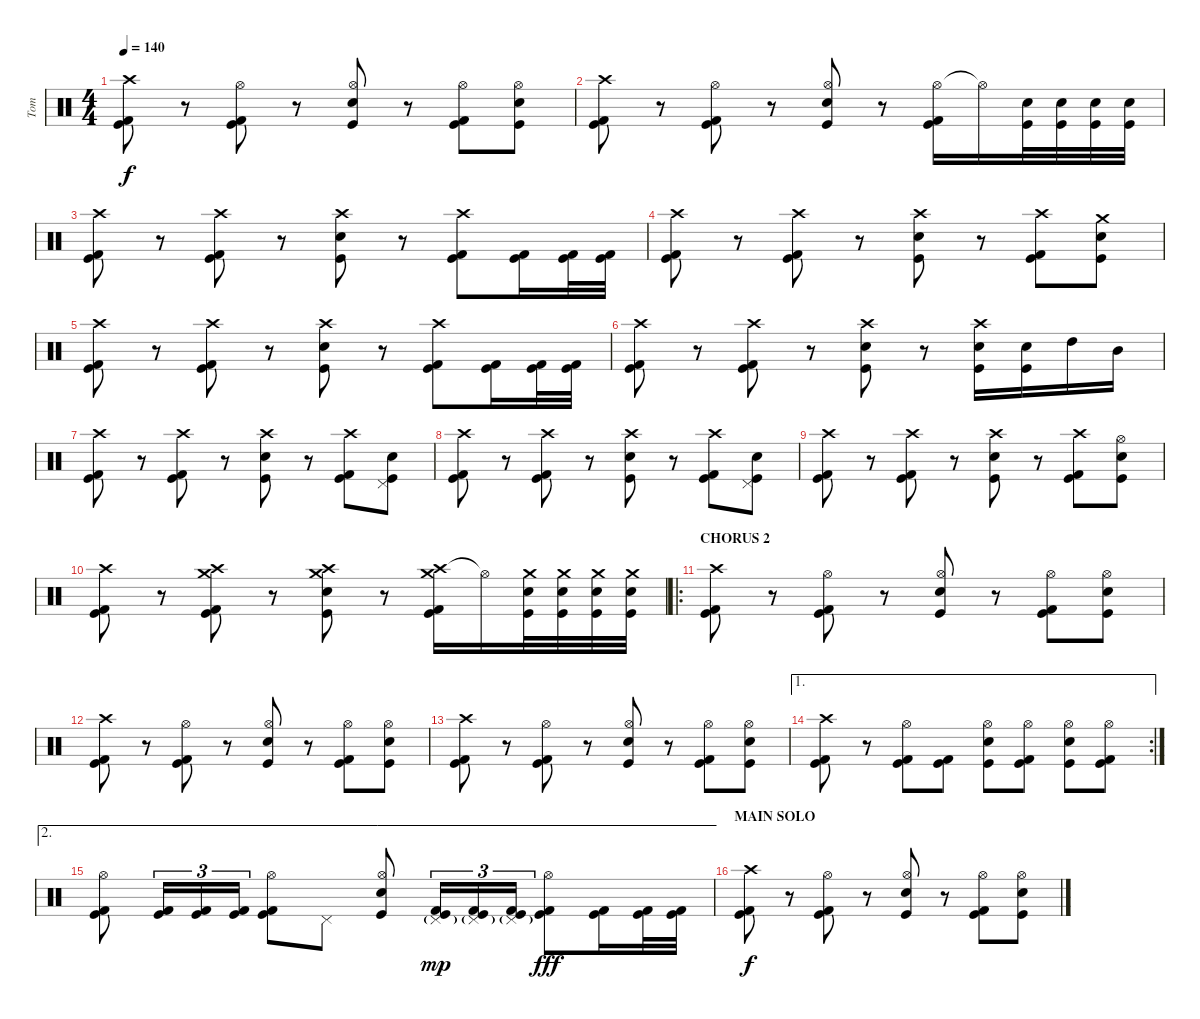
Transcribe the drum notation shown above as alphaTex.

\track ("Tom" "Tom") {instrument percussion}
\staff {score}
\articulation defaults
\ts (4 4)
\tempo 140
\clef neutral
\ks c
("Crash high (hit)" "Kick (hit)" "Kick (hit) 2").8{dy f} r.8 ("Hi-Hat (open)" "Kick (hit)" "Kick (hit) 2").8 r.8 ("Hi-Hat (open)" "Kick (hit)" "Electric Snare (hit)").8 r.8 ("Hi-Hat (open)" "Kick (hit)" "Kick (hit) 2").8 ("Hi-Hat (open)" "Kick (hit)" "Electric Snare (hit)").8 |
("Crash high (hit)" "Kick (hit)" "Kick (hit) 2").8 r.8 ("Hi-Hat (open)" "Kick (hit)" "Kick (hit) 2").8 r.8 ("Hi-Hat (open)" "Kick (hit)" "Electric Snare (hit)").8 r.8 ("Hi-Hat (open)" "Kick (hit)" "Kick (hit) 2").16 "Hi-Hat (open)"{t}.16 ("Kick (hit)" "Electric Snare (hit)").32 ("Kick (hit)" "Electric Snare (hit)").32 ("Kick (hit)" "Electric Snare (hit)").32 ("Kick (hit)" "Electric Snare (hit)").32 |
("Crash high (hit)" "Kick (hit)" "Kick (hit) 2").8 r.8 ("Crash high (hit)" "Kick (hit)" "Kick (hit) 2").8 r.8 ("Crash high (hit)" "Kick (hit)" "Electric Snare (hit)").8 r.8 ("Crash high (hit)" "Kick (hit)" "Kick (hit) 2").8 ("Kick (hit)" "Kick (hit) 2").16 ("Kick (hit)" "Kick (hit) 2").32 ("Kick (hit)" "Kick (hit) 2").32 |
("Crash high (hit)" "Kick (hit)" "Kick (hit) 2").8 r.8 ("Crash high (hit)" "Kick (hit)" "Kick (hit) 2").8 r.8 ("Crash high (hit)" "Kick (hit)" "Electric Snare (hit)").8 r.8 ("Crash high (hit)" "Kick (hit)" "Kick (hit) 2").8 ("Crash medium (hit)" "Kick (hit)" "Electric Snare (hit)").8 |
("Crash high (hit)" "Kick (hit)" "Kick (hit) 2").8 r.8 ("Crash high (hit)" "Kick (hit)" "Kick (hit) 2").8 r.8 ("Crash high (hit)" "Kick (hit)" "Electric Snare (hit)").8 r.8 ("Crash high (hit)" "Kick (hit)" "Kick (hit) 2").8 ("Kick (hit)" "Kick (hit) 2").16 ("Kick (hit)" "Kick (hit) 2").32 ("Kick (hit)" "Kick (hit) 2").32 |
("Crash high (hit)" "Kick (hit)" "Kick (hit) 2").8 r.8 ("Crash high (hit)" "Kick (hit)" "Kick (hit) 2").8 r.8 ("Crash high (hit)" "Kick (hit)" "Electric Snare (hit)").8 r.8 ("Crash high (hit)" "Kick (hit)" "Electric Snare (hit)").16 ("Kick (hit)" "Electric Snare (hit)").16 "High Tom (hit)".16 "Mid Tom (hit)".16 |
("Crash high (hit)" "Kick (hit)" "Kick (hit) 2").8 r.8 ("Crash high (hit)" "Kick (hit)" "Kick (hit) 2").8 r.8 ("Crash high (hit)" "Kick (hit)" "Electric Snare (hit)").8 r.8 ("Crash high (hit)" "Kick (hit)" "Kick (hit) 2").8 ("Pedal Hi-Hat (hit)" "Kick (hit)" "Electric Snare (hit)").8 |
("Crash high (hit)" "Kick (hit)" "Kick (hit) 2").8 r.8 ("Crash high (hit)" "Kick (hit)" "Kick (hit) 2").8 r.8 ("Crash high (hit)" "Kick (hit)" "Electric Snare (hit)").8 r.8 ("Crash high (hit)" "Kick (hit)" "Kick (hit) 2").8 ("Pedal Hi-Hat (hit)" "Kick (hit)" "Electric Snare (hit)").8 |
("Crash high (hit)" "Kick (hit)" "Kick (hit) 2").8 r.8 ("Crash high (hit)" "Kick (hit)" "Kick (hit) 2").8 r.8 ("Crash high (hit)" "Kick (hit)" "Electric Snare (hit)").8 r.8 ("Crash high (hit)" "Kick (hit)" "Kick (hit) 2").8 ("Hi-Hat (open)" "Kick (hit)" "Electric Snare (hit)").8 |
("Crash high (hit)" "Kick (hit)" "Kick (hit) 2").8 r.8 ("Crash high (hit)" "Kick (hit)" "Crash medium (hit)" "Kick (hit) 2").8 r.8 ("Crash high (hit)" "Kick (hit)" "Crash medium (hit)" "Electric Snare (hit)").8 r.8 ("Crash high (hit)" "Kick (hit)" "Crash medium (hit)" "Kick (hit) 2").16 "Hi-Hat (open)"{t}.16 ("Kick (hit)" "Crash medium (hit)" "Electric Snare (hit)").32 ("Kick (hit)" "Crash medium (hit)" "Electric Snare (hit)").32 ("Kick (hit)" "Crash medium (hit)" "Electric Snare (hit)").32 ("Kick (hit)" "Crash medium (hit)" "Electric Snare (hit)").32 |
\ro
\section ("" "CHORUS 2")
("Crash high (hit)" "Kick (hit)" "Kick (hit) 2").8 r.8 ("Hi-Hat (open)" "Kick (hit)" "Kick (hit) 2").8 r.8 ("Hi-Hat (open)" "Kick (hit)" "Electric Snare (hit)").8 r.8 ("Hi-Hat (open)" "Kick (hit)" "Kick (hit) 2").8 ("Hi-Hat (open)" "Kick (hit)" "Electric Snare (hit)").8 |
("Crash high (hit)" "Kick (hit)" "Kick (hit) 2").8 r.8 ("Hi-Hat (open)" "Kick (hit)" "Kick (hit) 2").8 r.8 ("Hi-Hat (open)" "Kick (hit)" "Electric Snare (hit)").8 r.8 ("Hi-Hat (open)" "Kick (hit)" "Kick (hit) 2").8 ("Hi-Hat (open)" "Kick (hit)" "Electric Snare (hit)").8 |
("Crash high (hit)" "Kick (hit)" "Kick (hit) 2").8 r.8 ("Hi-Hat (open)" "Kick (hit)" "Kick (hit) 2").8 r.8 ("Hi-Hat (open)" "Kick (hit)" "Electric Snare (hit)").8 r.8 ("Hi-Hat (open)" "Kick (hit)" "Kick (hit) 2").8 ("Hi-Hat (open)" "Kick (hit)" "Electric Snare (hit)").8 |
\ae 1
\rc 2
("Crash high (hit)" "Kick (hit)" "Kick (hit) 2").8 r.8 ("Hi-Hat (open)" "Kick (hit)" "Kick (hit) 2").8 ("Kick (hit)" "Kick (hit) 2").8 ("Hi-Hat (open)" "Kick (hit)" "Electric Snare (hit)").8 ("Hi-Hat (open)" "Kick (hit)" "Kick (hit) 2").8 ("Hi-Hat (open)" "Kick (hit)" "Electric Snare (hit)").8 ("Hi-Hat (open)" "Kick (hit)" "Kick (hit) 2").8 |
\ae 2
("Hi-Hat (open)" "Kick (hit)" "Kick (hit) 2").8 ("Kick (hit)" "Kick (hit) 2").16{tu (3 2)} ("Kick (hit)" "Kick (hit) 2").16{tu (3 2)} ("Kick (hit)" "Kick (hit) 2").16{tu (3 2)} ("Hi-Hat (open)" "Kick (hit)" "Kick (hit) 2").8 "Pedal Hi-Hat (hit)".8 ("Hi-Hat (open)" "Kick (hit)" "Electric Snare (hit)").8 ("Kick (hit)" "Kick (hit) 2" "Pedal Hi-Hat (hit)"{g}).16{tu (3 2) dy mp} ("Kick (hit)" "Kick (hit) 2" "Pedal Hi-Hat (hit)"{g}).16{tu (3 2)} ("Kick (hit)" "Kick (hit) 2" "Pedal Hi-Hat (hit)"{g}).16{tu (3 2)} ("Hi-Hat (open)" "Kick (hit)" "Kick (hit) 2").8{dy fff} ("Kick (hit)" "Kick (hit) 2").16 ("Kick (hit)" "Kick (hit) 2").32 ("Kick (hit)" "Kick (hit) 2").32 |
\section ("" "MAIN SOLO")
("Crash high (hit)" "Kick (hit)" "Kick (hit) 2").8{dy f} r.8 ("Hi-Hat (open)" "Kick (hit)" "Kick (hit) 2").8 r.8 ("Hi-Hat (open)" "Kick (hit)" "Electric Snare (hit)").8 r.8 ("Hi-Hat (open)" "Kick (hit)" "Kick (hit) 2").8 ("Hi-Hat (open)" "Kick (hit)" "Electric Snare (hit)").8
